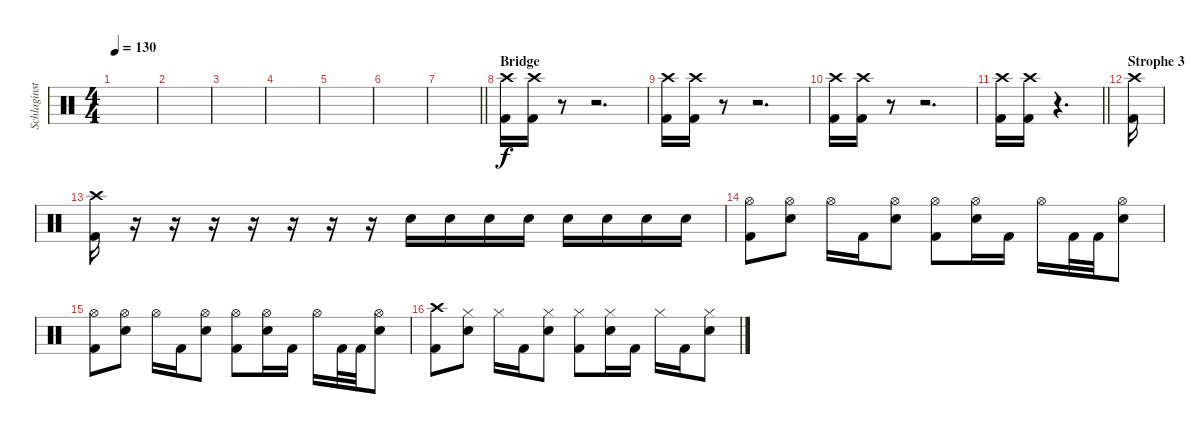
\track ("Schlaginstrumente - Auswahl" "Schlaginst") {instrument percussion}
\staff {score}
\articulation defaults
\ts (4 4)
\tempo 130
\clef neutral
\ks c
|
|
|
|
|
|
\barLineRight lightlight
|
\section ("" "Bridge")
("Crash high (hit)" "Kick (hit) 2").16 ("Crash high (hit)" "Kick (hit) 2").16 r.8 r.2{d} |
("Crash high (hit)" "Kick (hit) 2").16 ("Crash high (hit)" "Kick (hit) 2").16 r.8 r.2{d} |
("Crash high (hit)" "Kick (hit) 2").16 ("Crash high (hit)" "Kick (hit) 2").16 r.8 r.2{d} |
\barLineRight lightlight
("Crash high (hit)" "Kick (hit) 2").16 ("Crash high (hit)" "Kick (hit) 2").16 r.4{d} |
\section ("" "Strophe 3")
("Crash high (hit)" "Kick (hit) 2").16 |
("Crash high (hit)" "Kick (hit) 2").16 r.16 r.16 r.16 r.16 r.16 r.16 r.16 "Snare (hit) 2".16 "Snare (hit) 2".16 "Snare (hit) 2".16 "Snare (hit) 2".16 "Snare (hit) 2".16 "Snare (hit) 2".16 "Snare (hit) 2".16 "Snare (hit) 2".16 |
("Hi-Hat (open)" "Kick (hit) 2").8 ("Hi-Hat (open)" "Snare (hit) 2").8 "Hi-Hat (open)".16 "Kick (hit) 2".16 ("Hi-Hat (open)" "Snare (hit) 2").8 ("Hi-Hat (open)" "Kick (hit) 2").8 ("Hi-Hat (open)" "Snare (hit) 2").16 "Kick (hit) 2".16 "Hi-Hat (open)".16 "Kick (hit) 2".32 "Kick (hit) 2".32 ("Hi-Hat (open)" "Snare (hit) 2").8 |
("Hi-Hat (open)" "Kick (hit) 2").8 ("Hi-Hat (open)" "Snare (hit) 2").8 "Hi-Hat (open)".16 "Kick (hit) 2".16 ("Hi-Hat (open)" "Snare (hit) 2").8 ("Hi-Hat (open)" "Kick (hit) 2").8 ("Hi-Hat (open)" "Snare (hit) 2").16 "Kick (hit) 2".16 "Hi-Hat (open)".16 "Kick (hit) 2".32 "Kick (hit) 2".32 ("Hi-Hat (open)" "Snare (hit) 2").8 |
("Crash high (hit)" "Kick (hit) 2").8 ("Hi-Hat (closed)" "Snare (hit) 2").8 "Hi-Hat (closed)".16 "Kick (hit) 2".16 ("Hi-Hat (closed)" "Snare (hit) 2").8 ("Hi-Hat (closed)" "Kick (hit) 2").8 ("Hi-Hat (closed)" "Snare (hit) 2").16 "Kick (hit) 2".16 "Hi-Hat (closed)".16 "Kick (hit) 2".16 ("Hi-Hat (closed)" "Snare (hit) 2").8
